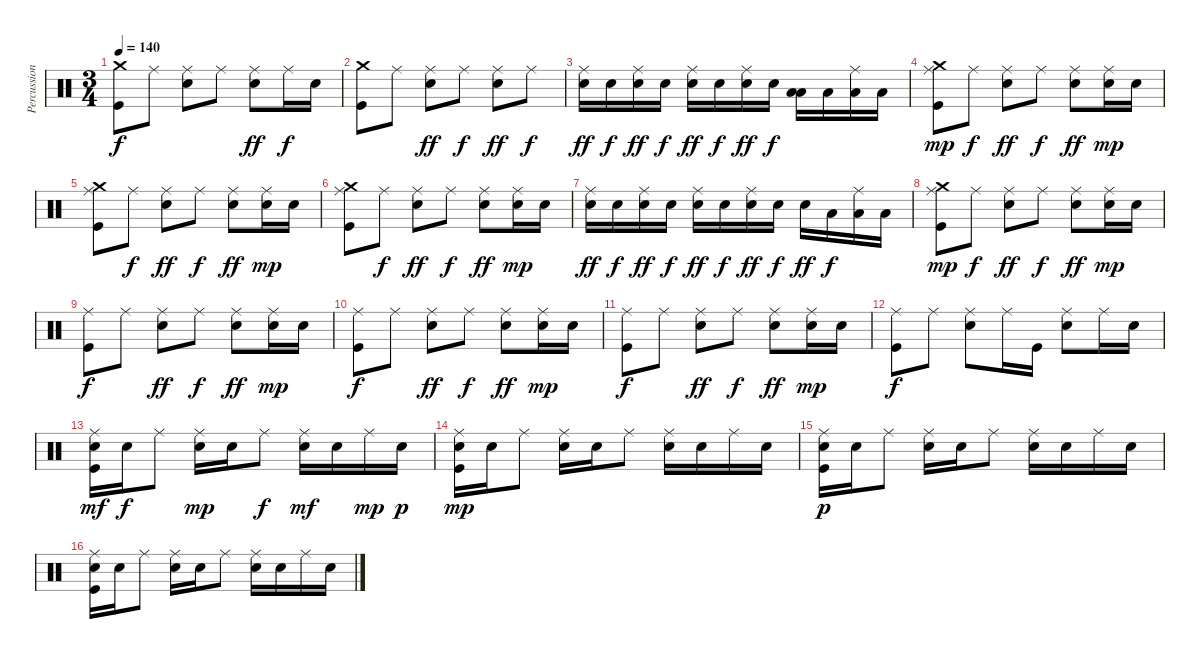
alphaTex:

\track ("Percussion" "Percussion") {instrument percussion}
\staff {score}
\articulation defaults
\ts (3 4)
\tempo 140
\clef neutral
\ks c
("Crash medium (hit)" "Kick (hit)").8{dy f} "Ride (middle)".8 ("Ride (middle)" "Electric Snare (hit)").8 "Ride (middle)".8 ("Ride (middle)" "Electric Snare (hit)").8{dy ff} "Ride (middle)".16{dy f} "Electric Snare (hit)".16 |
("Crash medium (hit)" "Kick (hit)").8 "Ride (middle)".8 ("Ride (middle)" "Electric Snare (hit)").8{dy ff} "Ride (middle)".8{dy f} ("Ride (middle)" "Electric Snare (hit)").8{dy ff} "Ride (middle)".8{dy f} |
("Ride (middle)" "Electric Snare (hit)").16{dy ff} "Electric Snare (hit)".16{dy f} ("Ride (middle)" "Electric Snare (hit)").16{dy ff} "Electric Snare (hit)".16{dy f} ("Ride (middle)" "Electric Snare (hit)").16{dy ff} "Electric Snare (hit)".16{dy f} ("Ride (middle)" "Electric Snare (hit)").16{dy ff} "Electric Snare (hit)".16{dy f} ("Low Floor Tom (hit)" "Low Tom (hit)").16 "Low Tom (hit)".16 ("Ride (middle)" "Low Tom (hit)").16 "Low Tom (hit)".16 |
("Crash medium (hit)" "Ride (middle)" "Kick (hit)").8{dy mp} "Ride (middle)".8{dy f} ("Ride (middle)" "Electric Snare (hit)").8{dy ff} "Ride (middle)".8{dy f} ("Ride (middle)" "Electric Snare (hit)").8{dy ff} ("Ride (middle)" "Electric Snare (hit)").16{dy mp} "Electric Snare (hit)".16 |
("Crash medium (hit)" "Ride (middle)" "Kick (hit)").8 "Ride (middle)".8{dy f} ("Ride (middle)" "Electric Snare (hit)").8{dy ff} "Ride (middle)".8{dy f} ("Ride (middle)" "Electric Snare (hit)").8{dy ff} ("Ride (middle)" "Electric Snare (hit)").16{dy mp} "Electric Snare (hit)".16 |
("Crash medium (hit)" "Ride (middle)" "Kick (hit)").8 "Ride (middle)".8{dy f} ("Ride (middle)" "Electric Snare (hit)").8{dy ff} "Ride (middle)".8{dy f} ("Ride (middle)" "Electric Snare (hit)").8{dy ff} ("Ride (middle)" "Electric Snare (hit)").16{dy mp} "Electric Snare (hit)".16 |
("Ride (middle)" "Electric Snare (hit)").16{dy ff} "Electric Snare (hit)".16{dy f} ("Ride (middle)" "Electric Snare (hit)").16{dy ff} "Electric Snare (hit)".16{dy f} ("Ride (middle)" "Electric Snare (hit)").16{dy ff} "Electric Snare (hit)".16{dy f} ("Ride (middle)" "Electric Snare (hit)").16{dy ff} "Electric Snare (hit)".16{dy f} "Electric Snare (hit)".16{dy ff} "Low Tom (hit)".16{dy f} ("Ride (middle)" "Low Tom (hit)").16 "Low Tom (hit)".16 |
("Crash medium (hit)" "Ride (middle)" "Kick (hit)").8{dy mp} "Ride (middle)".8{dy f} ("Ride (middle)" "Electric Snare (hit)").8{dy ff} "Ride (middle)".8{dy f} ("Ride (middle)" "Electric Snare (hit)").8{dy ff} ("Ride (middle)" "Electric Snare (hit)").16{dy mp} "Electric Snare (hit)".16 |
("Ride (middle)" "Kick (hit)").8{dy f} "Ride (middle)".8 ("Ride (middle)" "Electric Snare (hit)").8{dy ff} "Ride (middle)".8{dy f} ("Ride (middle)" "Electric Snare (hit)").8{dy ff} ("Ride (middle)" "Electric Snare (hit)").16{dy mp} "Electric Snare (hit)".16 |
("Ride (middle)" "Kick (hit)").8{dy f} "Ride (middle)".8 ("Ride (middle)" "Electric Snare (hit)").8{dy ff} "Ride (middle)".8{dy f} ("Ride (middle)" "Electric Snare (hit)").8{dy ff} ("Ride (middle)" "Electric Snare (hit)").16{dy mp} "Electric Snare (hit)".16 |
("Ride (middle)" "Kick (hit)").8{dy f} "Ride (middle)".8 ("Ride (middle)" "Electric Snare (hit)").8{dy ff} "Ride (middle)".8{dy f} ("Ride (middle)" "Electric Snare (hit)").8{dy ff} ("Ride (middle)" "Electric Snare (hit)").16{dy mp} "Electric Snare (hit)".16 |
("Ride (middle)" "Kick (hit)").8{dy f} "Ride (middle)".8 ("Ride (middle)" "Electric Snare (hit)").8 "Ride (middle)".16 "Kick (hit)".16 ("Ride (middle)" "Electric Snare (hit)").8 "Ride (middle)".16 "Electric Snare (hit)".16 |
("Ride (middle)" "Electric Snare (hit)" "Kick (hit)").16{dy mf} "Electric Snare (hit)".16{dy f} "Ride (middle)".8 ("Ride (middle)" "Electric Snare (hit)").16{dy mp} "Electric Snare (hit)".16 "Ride (middle)".8{dy f} ("Ride (middle)" "Electric Snare (hit)").16{dy mf} "Electric Snare (hit)".16 "Ride (middle)".16{dy mp} "Electric Snare (hit)".16{dy p} |
("Ride (middle)" "Electric Snare (hit)" "Kick (hit)").16{dy mp} "Electric Snare (hit)".16 "Ride (middle)".8 ("Ride (middle)" "Electric Snare (hit)").16 "Electric Snare (hit)".16 "Ride (middle)".8 ("Ride (middle)" "Electric Snare (hit)").16 "Electric Snare (hit)".16 "Ride (middle)".16 "Electric Snare (hit)".16 |
("Ride (middle)" "Electric Snare (hit)" "Kick (hit)").16{dy p} "Electric Snare (hit)".16 "Ride (middle)".8 ("Ride (middle)" "Electric Snare (hit)").16 "Electric Snare (hit)".16 "Ride (middle)".8 ("Ride (middle)" "Electric Snare (hit)").16 "Electric Snare (hit)".16 "Ride (middle)".16 "Electric Snare (hit)".16 |
("Ride (middle)" "Electric Snare (hit)" "Kick (hit)").16 "Electric Snare (hit)".16 "Ride (middle)".8 ("Ride (middle)" "Electric Snare (hit)").16 "Electric Snare (hit)".16 "Ride (middle)".8 ("Ride (middle)" "Electric Snare (hit)").16 "Electric Snare (hit)".16 "Ride (middle)".16 "Electric Snare (hit)".16
